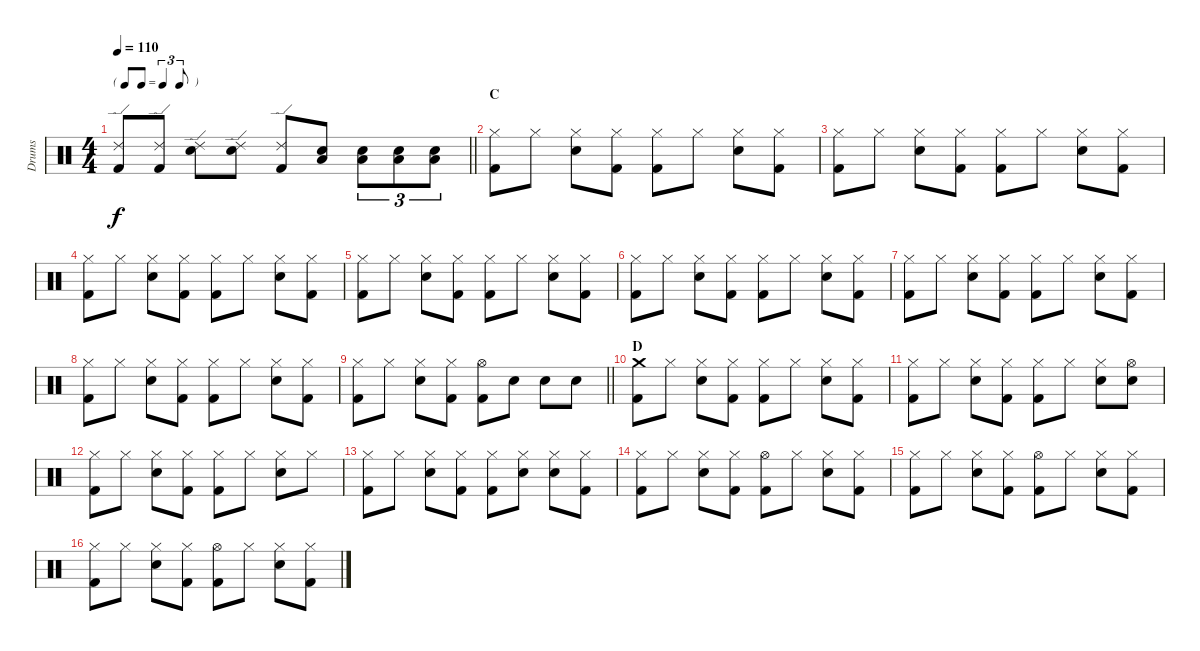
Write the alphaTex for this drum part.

\track ("Drums" "Drums") {instrument percussion}
\staff {score}
\articulation defaults
\ts (4 4)
\tf triplet8th
\tempo 110
\clef neutral
\barLineRight lightlight
\ks c
("Ride (edge) 2" "Kick (hit) 2").8{dy f} ("Ride (edge) 2" "Kick (hit) 2").8 ("Ride (edge) 2" "Snare (hit) 2").8 ("Ride (edge) 2" "Snare (hit) 2").8 ("Ride (edge) 2" "Kick (hit) 2").8 ("Low Tom (hit)" "Snare (hit) 2").8 ("Low Tom (hit)" "Snare (hit) 2").8{tu (3 2)} ("Low Tom (hit)" "Snare (hit) 2").8{tu (3 2)} ("Low Tom (hit)" "Snare (hit) 2").8{tu (3 2)} |
\section ("" "C")
("Hi-Hat (closed)" "Kick (hit) 2").8 "Hi-Hat (closed)".8 ("Hi-Hat (closed)" "Snare (hit) 2").8 ("Hi-Hat (closed)" "Kick (hit) 2").8 ("Hi-Hat (closed)" "Kick (hit) 2").8 "Hi-Hat (closed)".8 ("Hi-Hat (closed)" "Snare (hit) 2").8 ("Hi-Hat (closed)" "Kick (hit) 2").8 |
("Hi-Hat (closed)" "Kick (hit) 2").8 "Hi-Hat (closed)".8 ("Hi-Hat (closed)" "Snare (hit) 2").8 ("Hi-Hat (closed)" "Kick (hit) 2").8 ("Hi-Hat (closed)" "Kick (hit) 2").8 "Hi-Hat (closed)".8 ("Hi-Hat (closed)" "Snare (hit) 2").8 ("Hi-Hat (closed)" "Kick (hit) 2").8 |
("Hi-Hat (closed)" "Kick (hit) 2").8 "Hi-Hat (closed)".8 ("Hi-Hat (closed)" "Snare (hit) 2").8 ("Hi-Hat (closed)" "Kick (hit) 2").8 ("Hi-Hat (closed)" "Kick (hit) 2").8 "Hi-Hat (closed)".8 ("Hi-Hat (closed)" "Snare (hit) 2").8 ("Hi-Hat (closed)" "Kick (hit) 2").8 |
("Hi-Hat (closed)" "Kick (hit) 2").8 "Hi-Hat (closed)".8 ("Hi-Hat (closed)" "Snare (hit) 2").8 ("Hi-Hat (closed)" "Kick (hit) 2").8 ("Hi-Hat (closed)" "Kick (hit) 2").8 "Hi-Hat (closed)".8 ("Hi-Hat (closed)" "Snare (hit) 2").8 ("Hi-Hat (closed)" "Kick (hit) 2").8 |
("Hi-Hat (closed)" "Kick (hit) 2").8 "Hi-Hat (closed)".8 ("Hi-Hat (closed)" "Snare (hit) 2").8 ("Hi-Hat (closed)" "Kick (hit) 2").8 ("Hi-Hat (closed)" "Kick (hit) 2").8 "Hi-Hat (closed)".8 ("Hi-Hat (closed)" "Snare (hit) 2").8 ("Hi-Hat (closed)" "Kick (hit) 2").8 |
("Hi-Hat (closed)" "Kick (hit) 2").8 "Hi-Hat (closed)".8 ("Hi-Hat (closed)" "Snare (hit) 2").8 ("Hi-Hat (closed)" "Kick (hit) 2").8 ("Hi-Hat (closed)" "Kick (hit) 2").8 "Hi-Hat (closed)".8 ("Hi-Hat (closed)" "Snare (hit) 2").8 ("Hi-Hat (closed)" "Kick (hit) 2").8 |
("Hi-Hat (closed)" "Kick (hit) 2").8 "Hi-Hat (closed)".8 ("Hi-Hat (closed)" "Snare (hit) 2").8 ("Hi-Hat (closed)" "Kick (hit) 2").8 ("Hi-Hat (closed)" "Kick (hit) 2").8 "Hi-Hat (closed)".8 ("Hi-Hat (closed)" "Snare (hit) 2").8 ("Hi-Hat (closed)" "Kick (hit) 2").8 |
\barLineRight lightlight
("Hi-Hat (closed)" "Kick (hit) 2").8 "Hi-Hat (closed)".8 ("Hi-Hat (closed)" "Snare (hit) 2").8 ("Hi-Hat (closed)" "Kick (hit) 2").8 ("Hi-Hat (open)" "Kick (hit) 2").8 "Snare (hit) 2".8 "Snare (hit) 2".8 "Snare (hit) 2".8 |
\section ("" "D")
("Crash medium (hit)" "Kick (hit) 2").8 "Hi-Hat (closed)".8 ("Hi-Hat (closed)" "Snare (hit) 2").8 ("Hi-Hat (closed)" "Kick (hit) 2").8 ("Hi-Hat (closed)" "Kick (hit) 2").8 "Hi-Hat (closed)".8 ("Hi-Hat (closed)" "Snare (hit) 2").8 ("Hi-Hat (closed)" "Kick (hit) 2").8 |
("Hi-Hat (closed)" "Kick (hit) 2").8 "Hi-Hat (closed)".8 ("Hi-Hat (closed)" "Snare (hit) 2").8 ("Hi-Hat (closed)" "Kick (hit) 2").8 ("Hi-Hat (closed)" "Kick (hit) 2").8 "Hi-Hat (closed)".8 ("Hi-Hat (closed)" "Snare (hit) 2").8 ("Hi-Hat (open)" "Snare (hit) 2").8 |
("Hi-Hat (closed)" "Kick (hit) 2").8 "Hi-Hat (closed)".8 ("Hi-Hat (closed)" "Snare (hit) 2").8 ("Hi-Hat (closed)" "Kick (hit) 2").8 ("Hi-Hat (closed)" "Kick (hit) 2").8 "Hi-Hat (closed)".8 ("Hi-Hat (closed)" "Snare (hit) 2").8 "Hi-Hat (closed)".8 |
("Hi-Hat (closed)" "Kick (hit) 2").8 "Hi-Hat (closed)".8 ("Hi-Hat (closed)" "Snare (hit) 2").8 ("Hi-Hat (closed)" "Kick (hit) 2").8 ("Hi-Hat (closed)" "Kick (hit) 2").8 ("Hi-Hat (closed)" "Snare (hit) 2").8 ("Hi-Hat (closed)" "Snare (hit) 2").8 ("Hi-Hat (closed)" "Kick (hit) 2").8 |
("Hi-Hat (closed)" "Kick (hit) 2").8 "Hi-Hat (closed)".8 ("Hi-Hat (closed)" "Snare (hit) 2").8 ("Hi-Hat (closed)" "Kick (hit) 2").8 ("Hi-Hat (open)" "Kick (hit) 2").8 "Hi-Hat (closed)".8 ("Hi-Hat (closed)" "Snare (hit) 2").8 ("Hi-Hat (closed)" "Kick (hit) 2").8 |
("Hi-Hat (closed)" "Kick (hit) 2").8 "Hi-Hat (closed)".8 ("Hi-Hat (closed)" "Snare (hit) 2").8 ("Hi-Hat (closed)" "Kick (hit) 2").8 ("Hi-Hat (open)" "Kick (hit) 2").8 "Hi-Hat (closed)".8 ("Hi-Hat (closed)" "Snare (hit) 2").8 ("Hi-Hat (closed)" "Kick (hit) 2").8 |
("Hi-Hat (closed)" "Kick (hit) 2").8 "Hi-Hat (closed)".8 ("Hi-Hat (closed)" "Snare (hit) 2").8 ("Hi-Hat (closed)" "Kick (hit) 2").8 ("Hi-Hat (open)" "Kick (hit) 2").8 "Hi-Hat (closed)".8 ("Hi-Hat (closed)" "Snare (hit) 2").8 ("Hi-Hat (closed)" "Kick (hit) 2").8
